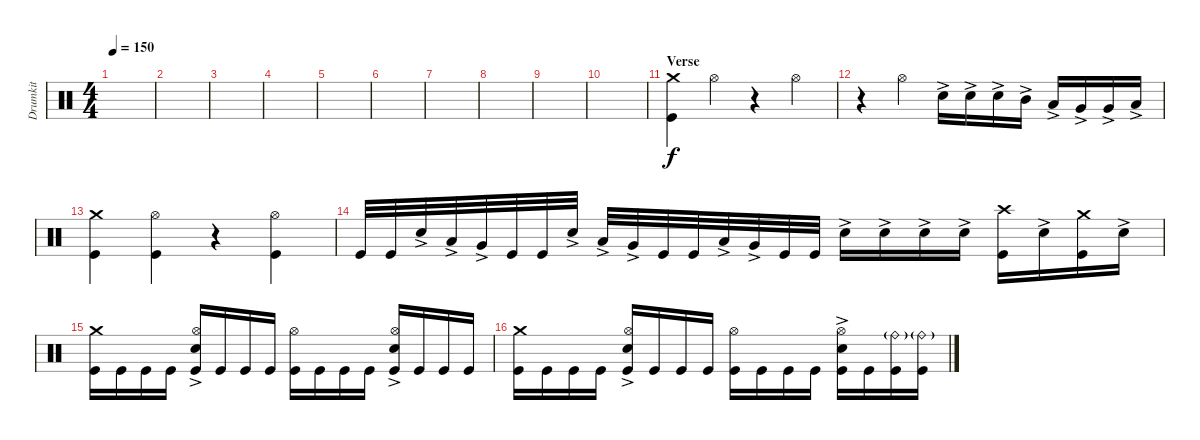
\track ("Drumkit" "Drumkit") {instrument percussion}
\staff {score}
\articulation defaults
\ts (4 4)
\tempo 150
\clef neutral
\ks c
|
|
|
|
|
|
|
|
|
|
\section ("" "Verse")
("Kick (hit)" "Crash medium (hit)").4 "Hi-Hat (open)".4 r.4 "Hi-Hat (open)".4 |
r.4 "Hi-Hat (open)".4 "Snare (hit) 2"{ac}.16 "Snare (hit) 2"{ac}.16 "Snare (hit) 2"{ac}.16 "Mid Tom (hit)"{ac}.16 "Low Tom (hit)"{ac}.16 "Very Low Tom (hit)"{ac}.16 "Very Low Tom (hit)"{ac}.16 "Low Floor Tom (hit)"{ac}.16 |
("Kick (hit)" "Crash medium (hit)").4 ("Hi-Hat (open)" "Kick (hit)").4 r.4 ("Hi-Hat (open)" "Kick (hit)").4 |
"Kick (hit)".32 "Kick (hit)".32 "Snare (hit) 2"{ac}.32 "Low Tom (hit)"{ac}.32 "Very Low Tom (hit)"{ac}.32 "Kick (hit)".32 "Kick (hit)".32 "Snare (hit) 2"{ac}.32 "Low Tom (hit)"{ac}.32 "Very Low Tom (hit)"{ac}.32 "Kick (hit)".32 "Kick (hit)".32 "Low Tom (hit)"{ac}.32 "Very Low Tom (hit)"{ac}.32 "Kick (hit)".32 "Kick (hit)".32 "Snare (hit) 2"{ac}.16 "Snare (hit) 2"{ac}.16 "Snare (hit) 2"{ac}.16 "Snare (hit) 2"{ac}.16 ("Kick (hit)" "Crash high (hit)").16 "Snare (hit) 2"{ac}.16 ("Kick (hit)" "Crash medium (hit)").16 "Snare (hit) 2"{ac}.16 |
("Kick (hit)" "Crash medium (hit)").16 "Kick (hit)".16 "Kick (hit)".16 "Kick (hit)".16 ("Kick (hit)" "Hi-Hat (open)" "Snare (hit) 2"{ac}).16 "Kick (hit)".16 "Kick (hit)".16 "Kick (hit)".16 ("Kick (hit)" "Hi-Hat (open)").16 "Kick (hit)".16 "Kick (hit)".16 "Kick (hit)".16 ("Kick (hit)" "Hi-Hat (open)" "Snare (hit) 2"{ac}).16 "Kick (hit)".16 "Kick (hit)".16 "Kick (hit)".16 |
("Kick (hit)" "Crash medium (hit)").16 "Kick (hit)".16 "Kick (hit)".16 "Kick (hit)".16 ("Kick (hit)" "Hi-Hat (open)" "Snare (hit) 2"{ac}).16 "Kick (hit)".16 "Kick (hit)".16 "Kick (hit)".16 ("Kick (hit)" "Hi-Hat (open)").16 "Kick (hit)".16 "Kick (hit)".16 "Kick (hit)".16 ("Kick (hit)" "Hi-Hat (open)" "Snare (hit) 2"{ac}).16 "Kick (hit)".16 ("Kick (hit)" "Ride (bell)"{g}).16 ("Kick (hit)" "Ride (bell)"{g}).16
